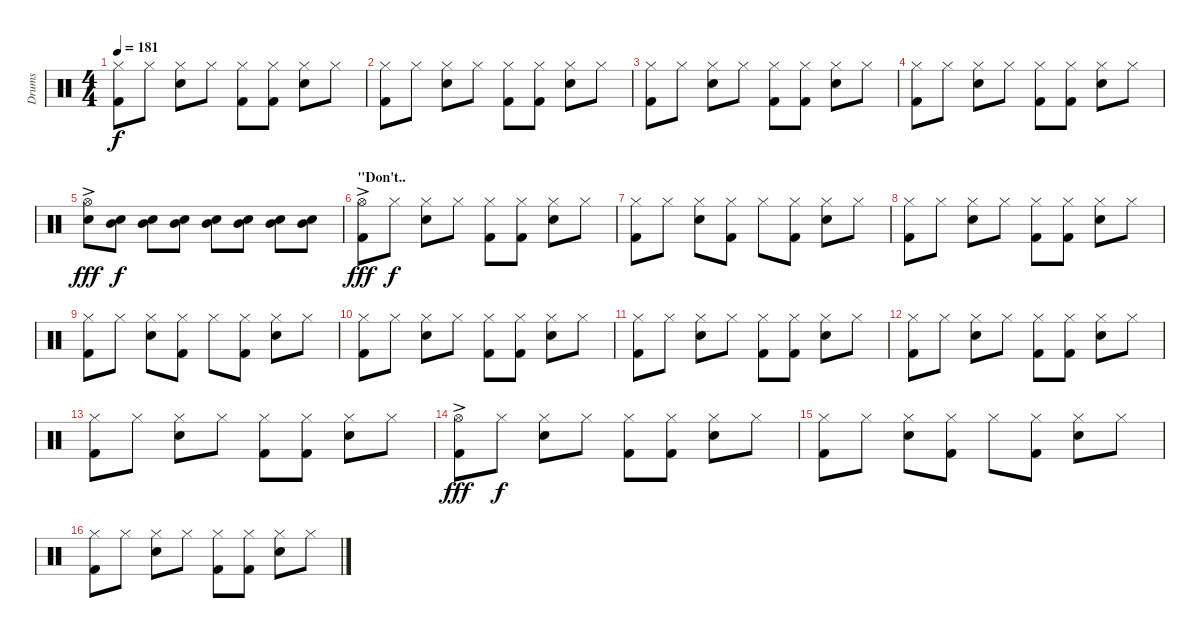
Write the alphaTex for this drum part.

\track ("Drums" "Drums") {instrument percussion}
\staff {score}
\articulation defaults
\ts (4 4)
\tempo 181
\clef neutral
\ks c
("Hi-Hat (closed)" "Kick (hit) 2").8{dy f} "Hi-Hat (closed)".8 ("Hi-Hat (closed)" "Snare (hit) 2").8 "Hi-Hat (closed)".8 ("Hi-Hat (closed)" "Kick (hit) 2").8 ("Hi-Hat (closed)" "Kick (hit) 2").8 ("Hi-Hat (closed)" "Snare (hit) 2").8 "Hi-Hat (closed)".8 |
("Hi-Hat (closed)" "Kick (hit) 2").8 "Hi-Hat (closed)".8 ("Hi-Hat (closed)" "Snare (hit) 2").8 "Hi-Hat (closed)".8 ("Hi-Hat (closed)" "Kick (hit) 2").8 ("Hi-Hat (closed)" "Kick (hit) 2").8 ("Hi-Hat (closed)" "Snare (hit) 2").8 "Hi-Hat (closed)".8 |
("Hi-Hat (closed)" "Kick (hit) 2").8 "Hi-Hat (closed)".8 ("Hi-Hat (closed)" "Snare (hit) 2").8 "Hi-Hat (closed)".8 ("Hi-Hat (closed)" "Kick (hit) 2").8 ("Hi-Hat (closed)" "Kick (hit) 2").8 ("Hi-Hat (closed)" "Snare (hit) 2").8 "Hi-Hat (closed)".8 |
("Hi-Hat (closed)" "Kick (hit) 2").8 "Hi-Hat (closed)".8 ("Hi-Hat (closed)" "Snare (hit) 2").8 "Hi-Hat (closed)".8 ("Hi-Hat (closed)" "Kick (hit) 2").8 ("Hi-Hat (closed)" "Kick (hit) 2").8 ("Hi-Hat (closed)" "Snare (hit) 2").8 "Hi-Hat (closed)".8 |
("Hi-Hat (open)"{ac} "Snare (hit) 2").8{dy fff} ("Snare (hit) 2" "Mid Tom (hit)").8{dy f} ("Snare (hit) 2" "Mid Tom (hit)").8 ("Snare (hit) 2" "Mid Tom (hit)").8 ("Snare (hit) 2" "Mid Tom (hit)").8 ("Snare (hit) 2" "Mid Tom (hit)").8 ("Snare (hit) 2" "Mid Tom (hit)").8 ("Snare (hit) 2" "Mid Tom (hit)").8 |
\section ("" "\"Don't..")
("Hi-Hat (open)"{ac} "Kick (hit) 2").8{dy fff} "Hi-Hat (closed)".8{dy f} ("Hi-Hat (closed)" "Snare (hit) 2").8 "Hi-Hat (closed)".8 ("Hi-Hat (closed)" "Kick (hit) 2").8 ("Hi-Hat (closed)" "Kick (hit) 2").8 ("Hi-Hat (closed)" "Snare (hit) 2").8 "Hi-Hat (closed)".8 |
("Hi-Hat (closed)" "Kick (hit) 2").8 "Hi-Hat (closed)".8 ("Hi-Hat (closed)" "Snare (hit) 2").8 ("Hi-Hat (closed)" "Kick (hit) 2").8 "Hi-Hat (closed)".8 ("Hi-Hat (closed)" "Kick (hit) 2").8 ("Hi-Hat (closed)" "Snare (hit) 2").8 "Hi-Hat (closed)".8 |
("Hi-Hat (closed)" "Kick (hit) 2").8 "Hi-Hat (closed)".8 ("Hi-Hat (closed)" "Snare (hit) 2").8 "Hi-Hat (closed)".8 ("Hi-Hat (closed)" "Kick (hit) 2").8 ("Hi-Hat (closed)" "Kick (hit) 2").8 ("Hi-Hat (closed)" "Snare (hit) 2").8 "Hi-Hat (closed)".8 |
("Hi-Hat (closed)" "Kick (hit) 2").8 "Hi-Hat (closed)".8 ("Hi-Hat (closed)" "Snare (hit) 2").8 ("Hi-Hat (closed)" "Kick (hit) 2").8 "Hi-Hat (closed)".8 ("Hi-Hat (closed)" "Kick (hit) 2").8 ("Hi-Hat (closed)" "Snare (hit) 2").8 "Hi-Hat (closed)".8 |
("Hi-Hat (closed)" "Kick (hit) 2").8 "Hi-Hat (closed)".8 ("Hi-Hat (closed)" "Snare (hit) 2").8 "Hi-Hat (closed)".8 ("Hi-Hat (closed)" "Kick (hit) 2").8 ("Hi-Hat (closed)" "Kick (hit) 2").8 ("Hi-Hat (closed)" "Snare (hit) 2").8 "Hi-Hat (closed)".8 |
("Hi-Hat (closed)" "Kick (hit) 2").8 "Hi-Hat (closed)".8 ("Hi-Hat (closed)" "Snare (hit) 2").8 "Hi-Hat (closed)".8 ("Hi-Hat (closed)" "Kick (hit) 2").8 ("Hi-Hat (closed)" "Kick (hit) 2").8 ("Hi-Hat (closed)" "Snare (hit) 2").8 "Hi-Hat (closed)".8 |
("Hi-Hat (closed)" "Kick (hit) 2").8 "Hi-Hat (closed)".8 ("Hi-Hat (closed)" "Snare (hit) 2").8 "Hi-Hat (closed)".8 ("Hi-Hat (closed)" "Kick (hit) 2").8 ("Hi-Hat (closed)" "Kick (hit) 2").8 ("Hi-Hat (closed)" "Snare (hit) 2").8 "Hi-Hat (closed)".8 |
("Hi-Hat (closed)" "Kick (hit) 2").8 "Hi-Hat (closed)".8 ("Hi-Hat (closed)" "Snare (hit) 2").8 "Hi-Hat (closed)".8 ("Hi-Hat (closed)" "Kick (hit) 2").8 ("Hi-Hat (closed)" "Kick (hit) 2").8 ("Hi-Hat (closed)" "Snare (hit) 2").8 "Hi-Hat (closed)".8 |
("Hi-Hat (open)"{ac} "Kick (hit) 2").8{dy fff} "Hi-Hat (closed)".8{dy f} ("Hi-Hat (closed)" "Snare (hit) 2").8 "Hi-Hat (closed)".8 ("Hi-Hat (closed)" "Kick (hit) 2").8 ("Hi-Hat (closed)" "Kick (hit) 2").8 ("Hi-Hat (closed)" "Snare (hit) 2").8 "Hi-Hat (closed)".8 |
("Hi-Hat (closed)" "Kick (hit) 2").8 "Hi-Hat (closed)".8 ("Hi-Hat (closed)" "Snare (hit) 2").8 ("Hi-Hat (closed)" "Kick (hit) 2").8 "Hi-Hat (closed)".8 ("Hi-Hat (closed)" "Kick (hit) 2").8 ("Hi-Hat (closed)" "Snare (hit) 2").8 "Hi-Hat (closed)".8 |
("Hi-Hat (closed)" "Kick (hit) 2").8 "Hi-Hat (closed)".8 ("Hi-Hat (closed)" "Snare (hit) 2").8 "Hi-Hat (closed)".8 ("Hi-Hat (closed)" "Kick (hit) 2").8 ("Hi-Hat (closed)" "Kick (hit) 2").8 ("Hi-Hat (closed)" "Snare (hit) 2").8 "Hi-Hat (closed)".8
